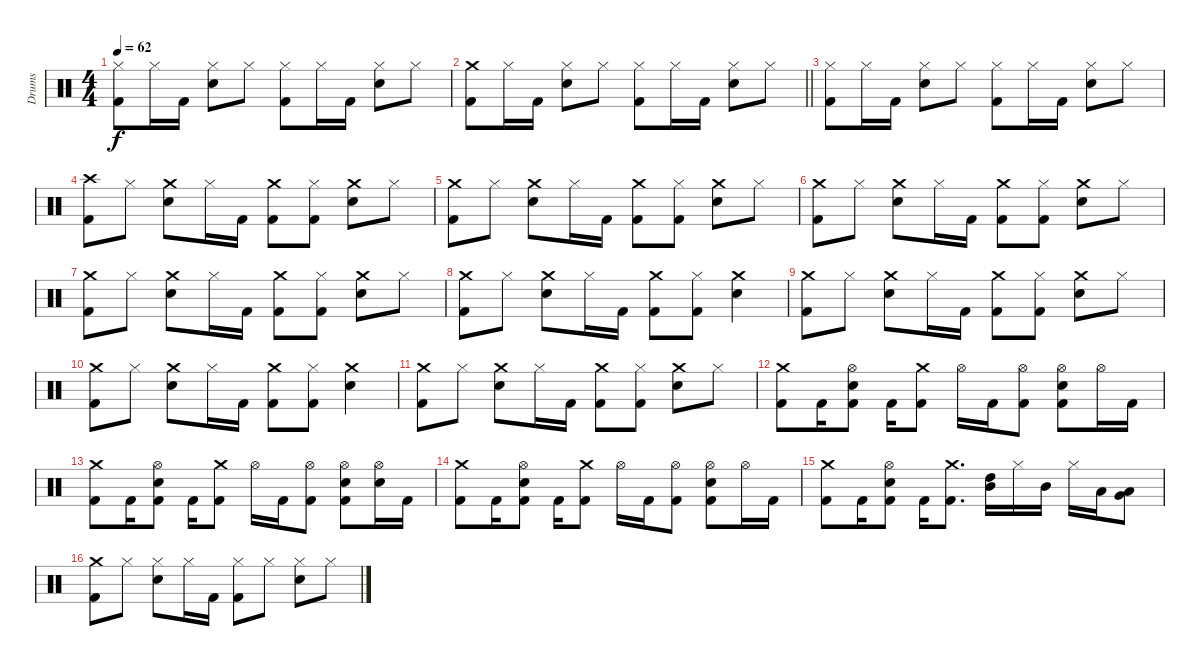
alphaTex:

\track ("Drums" "Drums") {instrument percussion}
\staff {score}
\articulation defaults
\ts (4 4)
\tempo 62
\clef neutral
\ks c
("Hi-Hat (closed)" "Kick (hit) 2").8{dy f} "Hi-Hat (closed)".16 "Kick (hit) 2".16 ("Hi-Hat (closed)" "Electric Snare (hit)").8 "Hi-Hat (closed)".8 ("Hi-Hat (closed)" "Kick (hit) 2").8 "Hi-Hat (closed)".16 "Kick (hit) 2".16 ("Hi-Hat (closed)" "Electric Snare (hit)").8 "Hi-Hat (closed)".8 |
\barLineRight lightlight
("Crash medium (hit)" "Kick (hit) 2").8 "Hi-Hat (closed)".16 "Kick (hit) 2".16 ("Hi-Hat (closed)" "Electric Snare (hit)").8 "Hi-Hat (closed)".8 ("Hi-Hat (closed)" "Kick (hit) 2").8 "Hi-Hat (closed)".16 "Kick (hit) 2".16 ("Hi-Hat (closed)" "Electric Snare (hit)").8 "Hi-Hat (closed)".8 |
("Hi-Hat (closed)" "Kick (hit) 2").8 "Hi-Hat (closed)".16 "Kick (hit) 2".16 ("Hi-Hat (closed)" "Electric Snare (hit)").8 "Hi-Hat (closed)".8 ("Hi-Hat (closed)" "Kick (hit) 2").8 "Hi-Hat (closed)".16 "Kick (hit) 2".16 ("Hi-Hat (closed)" "Electric Snare (hit)").8 "Hi-Hat (closed)".8 |
("Crash high (hit)" "Kick (hit) 2").8 "Hi-Hat (closed)".8 ("Crash medium (hit)" "Electric Snare (hit)").8 "Hi-Hat (closed)".16 "Kick (hit) 2".16 ("Crash medium (hit)" "Kick (hit) 2").8 ("Hi-Hat (closed)" "Kick (hit) 2").8 ("Crash medium (hit)" "Electric Snare (hit)").8 "Hi-Hat (closed)".8 |
("Crash medium (hit)" "Kick (hit) 2").8 "Hi-Hat (closed)".8 ("Crash medium (hit)" "Electric Snare (hit)").8 "Hi-Hat (closed)".16 "Kick (hit) 2".16 ("Crash medium (hit)" "Kick (hit) 2").8 ("Hi-Hat (closed)" "Kick (hit) 2").8 ("Crash medium (hit)" "Electric Snare (hit)").8 "Hi-Hat (closed)".8 |
("Crash medium (hit)" "Kick (hit) 2").8 "Hi-Hat (closed)".8 ("Crash medium (hit)" "Electric Snare (hit)").8 "Hi-Hat (closed)".16 "Kick (hit) 2".16 ("Crash medium (hit)" "Kick (hit) 2").8 ("Hi-Hat (closed)" "Kick (hit) 2").8 ("Crash medium (hit)" "Electric Snare (hit)").8 "Hi-Hat (closed)".8 |
("Crash medium (hit)" "Kick (hit) 2").8 "Hi-Hat (closed)".8 ("Crash medium (hit)" "Electric Snare (hit)").8 "Hi-Hat (closed)".16 "Kick (hit) 2".16 ("Crash medium (hit)" "Kick (hit) 2").8 ("Hi-Hat (closed)" "Kick (hit) 2").8 ("Crash medium (hit)" "Electric Snare (hit)").8 "Hi-Hat (closed)".8 |
("Crash medium (hit)" "Kick (hit) 2").8 "Hi-Hat (closed)".8 ("Crash medium (hit)" "Electric Snare (hit)").8 "Hi-Hat (closed)".16 "Kick (hit) 2".16 ("Crash medium (hit)" "Kick (hit) 2").8 ("Hi-Hat (closed)" "Kick (hit) 2").8 ("Crash medium (hit)" "Electric Snare (hit)").4 |
("Crash medium (hit)" "Kick (hit) 2").8 "Hi-Hat (closed)".8 ("Crash medium (hit)" "Electric Snare (hit)").8 "Hi-Hat (closed)".16 "Kick (hit) 2".16 ("Crash medium (hit)" "Kick (hit) 2").8 ("Hi-Hat (closed)" "Kick (hit) 2").8 ("Crash medium (hit)" "Electric Snare (hit)").8 "Hi-Hat (closed)".8 |
("Crash medium (hit)" "Kick (hit) 2").8 "Hi-Hat (closed)".8 ("Crash medium (hit)" "Electric Snare (hit)").8 "Hi-Hat (closed)".16 "Kick (hit) 2".16 ("Crash medium (hit)" "Kick (hit) 2").8 ("Hi-Hat (closed)" "Kick (hit) 2").8 ("Crash medium (hit)" "Electric Snare (hit)").4 |
("Crash medium (hit)" "Kick (hit) 2").8 "Hi-Hat (closed)".8 ("Crash medium (hit)" "Electric Snare (hit)").8 "Hi-Hat (closed)".16 "Kick (hit) 2".16 ("Crash medium (hit)" "Kick (hit) 2").8 ("Hi-Hat (closed)" "Kick (hit) 2").8 ("Crash medium (hit)" "Electric Snare (hit)").8 "Hi-Hat (closed)".8 |
("Crash medium (hit)" "Kick (hit) 2").8 "Kick (hit) 2".16 ("Hi-Hat (open)" "Electric Snare (hit)" "Kick (hit) 2").8 "Kick (hit) 2".16 ("Crash medium (hit)" "Kick (hit) 2").8 "Hi-Hat (open)".16 "Kick (hit) 2".16 ("Hi-Hat (open)" "Kick (hit) 2").8 ("Hi-Hat (open)" "Electric Snare (hit)" "Kick (hit) 2").8 "Hi-Hat (open)".16 "Kick (hit) 2".16 |
("Crash medium (hit)" "Kick (hit) 2").8 "Kick (hit) 2".16 ("Hi-Hat (open)" "Electric Snare (hit)" "Kick (hit) 2").8 "Kick (hit) 2".16 ("Crash medium (hit)" "Kick (hit) 2").8 "Hi-Hat (open)".16 "Kick (hit) 2".16 ("Hi-Hat (open)" "Kick (hit) 2").8 ("Hi-Hat (open)" "Electric Snare (hit)" "Kick (hit) 2").8 ("Hi-Hat (open)" "Electric Snare (hit)").16 "Kick (hit) 2".16 |
("Crash medium (hit)" "Kick (hit) 2").8 "Kick (hit) 2".16 ("Hi-Hat (open)" "Electric Snare (hit)" "Kick (hit) 2").8 "Kick (hit) 2".16 ("Crash medium (hit)" "Kick (hit) 2").8 "Hi-Hat (open)".16 "Kick (hit) 2".16 ("Hi-Hat (open)" "Kick (hit) 2").8 ("Hi-Hat (open)" "Electric Snare (hit)" "Kick (hit) 2").8 "Hi-Hat (open)".16 "Kick (hit) 2".16 |
("Crash medium (hit)" "Kick (hit) 2").8 "Kick (hit) 2".16 ("Hi-Hat (open)" "Electric Snare (hit)" "Kick (hit) 2").8 "Kick (hit) 2".16 ("Crash medium (hit)" "Kick (hit) 2").8{d} ("Mid Tom (hit)" "High Tom (hit)").16 "Hi-Hat (closed)".16 "Mid Tom (hit)".16 "Hi-Hat (closed)".16 "Low Tom (hit)".16 ("Very Low Tom (hit)" "Low Floor Tom (hit)").8 |
("Crash medium (hit)" "Kick (hit) 2").8 "Hi-Hat (closed)".8 ("Hi-Hat (closed)" "Electric Snare (hit)").8 "Hi-Hat (closed)".16 "Kick (hit) 2".16 ("Hi-Hat (closed)" "Kick (hit) 2").8 "Hi-Hat (closed)".8 ("Hi-Hat (closed)" "Electric Snare (hit)").8 "Hi-Hat (closed)".8
